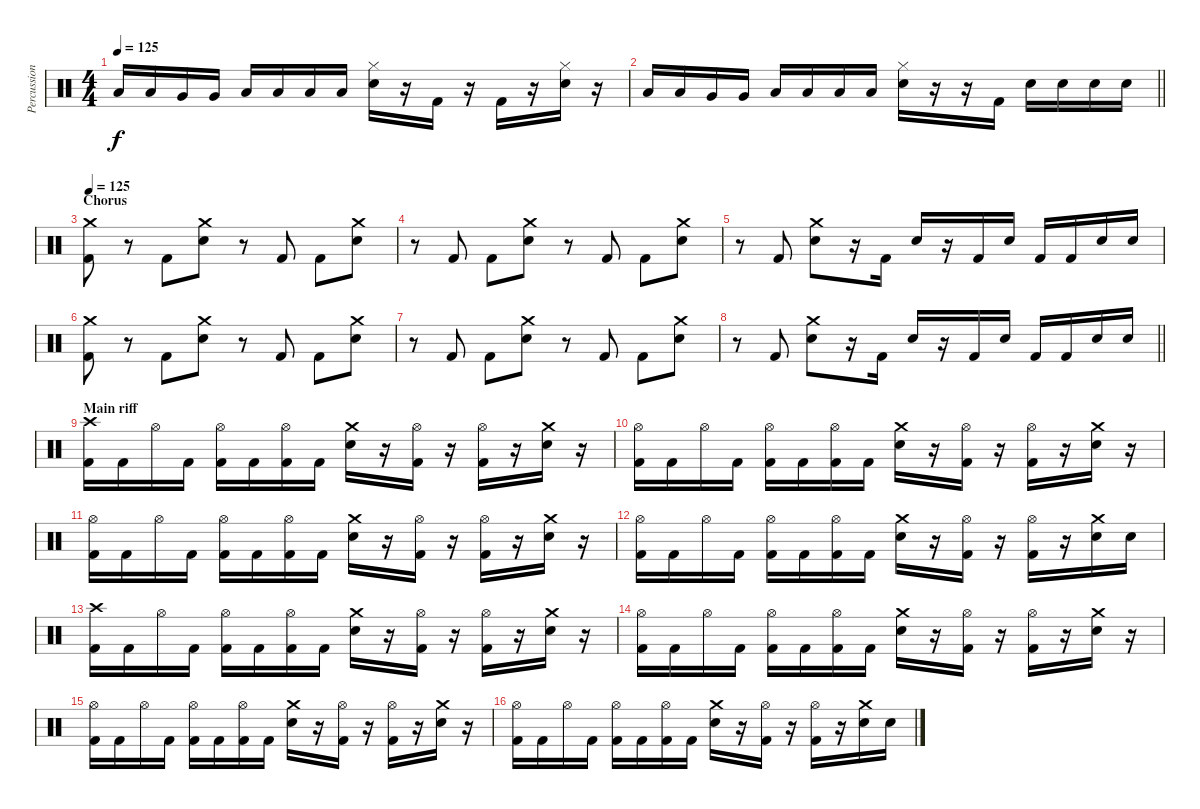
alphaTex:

\track ("Percussion" "Percussion") {instrument percussion}
\staff {score}
\articulation defaults
\ts (4 4)
\tempo 125
\clef neutral
\ks c "Low Tom (hit)".16{dy f} "Low Tom (hit)".16 "Very Low Tom (hit)".16 "Very Low Tom (hit)".16 "Low Floor Tom (hit)".16 "Low Floor Tom (hit)".16 "Low Tom (hit)".16 "Low Tom (hit)".16
("Hi-Hat (closed)" "Electric Snare (hit)").16 r.16 "Kick (hit) 2".16 r.16 "Kick (hit) 2".16 r.16 ("Hi-Hat (closed)" "Electric Snare (hit)").16 r.16 |
\barLineRight lightlight "Low Tom (hit)".16 "Low Tom (hit)".16 "Very Low Tom (hit)".16 "Very Low Tom (hit)".16 "Low Floor Tom (hit)".16 "Low Floor Tom (hit)".16 "Low Tom (hit)".16 "Low Tom (hit)".16
("Hi-Hat (closed)" "Electric Snare (hit)").16 r.16 r.16 "Kick (hit) 2".16 "Electric Snare (hit)".16 "Electric Snare (hit)".16 "Electric Snare (hit)".16 "Electric Snare (hit)".16 |
\section ("" "Chorus")
\tempo 125
("Crash medium (hit)" "Kick (hit) 2").8 r.8 "Kick (hit) 2".8 ("Crash medium (hit)" "Electric Snare (hit)").8 r.8 "Kick (hit) 2".8 "Kick (hit) 2".8 ("Crash medium (hit)" "Electric Snare (hit)").8 |
r.8 "Kick (hit) 2".8 "Kick (hit) 2".8 ("Crash medium (hit)" "Electric Snare (hit)").8 r.8 "Kick (hit) 2".8 "Kick (hit) 2".8 ("Crash medium (hit)" "Electric Snare (hit)").8 |
r.8 "Kick (hit) 2".8 ("Crash medium (hit)" "Electric Snare (hit)").8 r.16 "Kick (hit) 2".16 "Electric Snare (hit)".16 r.16 "Kick (hit) 2".16 "Electric Snare (hit)".16 "Kick (hit) 2".16 "Kick (hit) 2".16 "Electric Snare (hit)".16 "Electric Snare (hit)".16 |
("Crash medium (hit)" "Kick (hit) 2").8 r.8 "Kick (hit) 2".8 ("Crash medium (hit)" "Electric Snare (hit)").8 r.8 "Kick (hit) 2".8 "Kick (hit) 2".8 ("Crash medium (hit)" "Electric Snare (hit)").8 |
r.8 "Kick (hit) 2".8 "Kick (hit) 2".8 ("Crash medium (hit)" "Electric Snare (hit)").8 r.8 "Kick (hit) 2".8 "Kick (hit) 2".8 ("Crash medium (hit)" "Electric Snare (hit)").8 |
\barLineRight lightlight
r.8 "Kick (hit) 2".8 ("Crash medium (hit)" "Electric Snare (hit)").8 r.16 "Kick (hit) 2".16 "Electric Snare (hit)".16 r.16 "Kick (hit) 2".16 "Electric Snare (hit)".16 "Kick (hit) 2".16 "Kick (hit) 2".16 "Electric Snare (hit)".16 "Electric Snare (hit)".16 |
\section ("" "Main riff")
("Crash high (hit)" "Kick (hit) 2").16 "Kick (hit) 2".16 "Hi-Hat (open)".16 "Kick (hit) 2".16 ("Hi-Hat (open)" "Kick (hit) 2").16 "Kick (hit) 2".16 ("Hi-Hat (open)" "Kick (hit) 2").16 "Kick (hit) 2".16 ("Crash medium (hit)" "Electric Snare (hit)").16 r.16 ("Hi-Hat (open)" "Kick (hit) 2").16 r.16 ("Hi-Hat (open)" "Kick (hit) 2").16 r.16 ("Crash medium (hit)" "Electric Snare (hit)").16 r.16 |
("Hi-Hat (open)" "Kick (hit) 2").16 "Kick (hit) 2".16 "Hi-Hat (open)".16 "Kick (hit) 2".16 ("Hi-Hat (open)" "Kick (hit) 2").16 "Kick (hit) 2".16 ("Hi-Hat (open)" "Kick (hit) 2").16 "Kick (hit) 2".16 ("Crash medium (hit)" "Electric Snare (hit)").16 r.16 ("Hi-Hat (open)" "Kick (hit) 2").16 r.16 ("Hi-Hat (open)" "Kick (hit) 2").16 r.16 ("Crash medium (hit)" "Electric Snare (hit)").16 r.16 |
("Hi-Hat (open)" "Kick (hit) 2").16 "Kick (hit) 2".16 "Hi-Hat (open)".16 "Kick (hit) 2".16 ("Hi-Hat (open)" "Kick (hit) 2").16 "Kick (hit) 2".16 ("Hi-Hat (open)" "Kick (hit) 2").16 "Kick (hit) 2".16 ("Crash medium (hit)" "Electric Snare (hit)").16 r.16 ("Hi-Hat (open)" "Kick (hit) 2").16 r.16 ("Hi-Hat (open)" "Kick (hit) 2").16 r.16 ("Crash medium (hit)" "Electric Snare (hit)").16 r.16 |
("Hi-Hat (open)" "Kick (hit) 2").16 "Kick (hit) 2".16 "Hi-Hat (open)".16 "Kick (hit) 2".16 ("Hi-Hat (open)" "Kick (hit) 2").16 "Kick (hit) 2".16 ("Hi-Hat (open)" "Kick (hit) 2").16 "Kick (hit) 2".16 ("Crash medium (hit)" "Electric Snare (hit)").16 r.16 ("Hi-Hat (open)" "Kick (hit) 2").16 r.16 ("Hi-Hat (open)" "Kick (hit) 2").16 r.16 ("Crash medium (hit)" "Electric Snare (hit)").16 "Electric Snare (hit)".16 |
("Crash high (hit)" "Kick (hit) 2").16 "Kick (hit) 2".16 "Hi-Hat (open)".16 "Kick (hit) 2".16 ("Hi-Hat (open)" "Kick (hit) 2").16 "Kick (hit) 2".16 ("Hi-Hat (open)" "Kick (hit) 2").16 "Kick (hit) 2".16 ("Crash medium (hit)" "Electric Snare (hit)").16 r.16 ("Hi-Hat (open)" "Kick (hit) 2").16 r.16 ("Hi-Hat (open)" "Kick (hit) 2").16 r.16 ("Crash medium (hit)" "Electric Snare (hit)").16 r.16 |
("Hi-Hat (open)" "Kick (hit) 2").16 "Kick (hit) 2".16 "Hi-Hat (open)".16 "Kick (hit) 2".16 ("Hi-Hat (open)" "Kick (hit) 2").16 "Kick (hit) 2".16 ("Hi-Hat (open)" "Kick (hit) 2").16 "Kick (hit) 2".16 ("Crash medium (hit)" "Electric Snare (hit)").16 r.16 ("Hi-Hat (open)" "Kick (hit) 2").16 r.16 ("Hi-Hat (open)" "Kick (hit) 2").16 r.16 ("Crash medium (hit)" "Electric Snare (hit)").16 r.16 |
("Hi-Hat (open)" "Kick (hit) 2").16 "Kick (hit) 2".16 "Hi-Hat (open)".16 "Kick (hit) 2".16 ("Hi-Hat (open)" "Kick (hit) 2").16 "Kick (hit) 2".16 ("Hi-Hat (open)" "Kick (hit) 2").16 "Kick (hit) 2".16 ("Crash medium (hit)" "Electric Snare (hit)").16 r.16 ("Hi-Hat (open)" "Kick (hit) 2").16 r.16 ("Hi-Hat (open)" "Kick (hit) 2").16 r.16 ("Crash medium (hit)" "Electric Snare (hit)").16 r.16 |
("Hi-Hat (open)" "Kick (hit) 2").16 "Kick (hit) 2".16 "Hi-Hat (open)".16 "Kick (hit) 2".16 ("Hi-Hat (open)" "Kick (hit) 2").16 "Kick (hit) 2".16 ("Hi-Hat (open)" "Kick (hit) 2").16 "Kick (hit) 2".16 ("Crash medium (hit)" "Electric Snare (hit)").16 r.16 ("Hi-Hat (open)" "Kick (hit) 2").16 r.16 ("Hi-Hat (open)" "Kick (hit) 2").16 r.16 ("Crash medium (hit)" "Electric Snare (hit)").16 "Electric Snare (hit)".16
